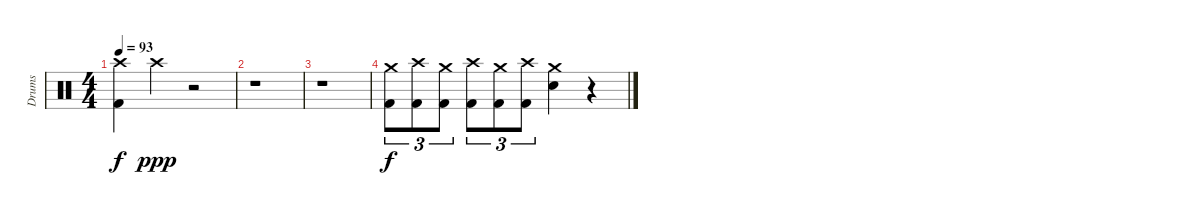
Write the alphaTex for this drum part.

\track ("Drums" "Drums") {instrument percussion}
\staff {score}
\articulation defaults
\ts (4 4)
\tempo 93
\clef neutral
\ks c
("Crash high (hit)" "Kick (hit) 2").4{dy f} "Crash high (hit)".4{dy ppp} r.2 |
r.1 |
r.1 |
("Crash medium (hit)" "Kick (hit) 2").8{tu (3 2) dy f} ("Crash high (hit)" "Kick (hit) 2").8{tu (3 2)} ("Crash medium (hit)" "Kick (hit) 2").8{tu (3 2)} ("Crash high (hit)" "Kick (hit) 2").8{tu (3 2)} ("Crash medium (hit)" "Kick (hit) 2").8{tu (3 2)} ("Crash high (hit)" "Kick (hit) 2").8{tu (3 2)} ("Crash medium (hit)" "Snare (hit) 2").4 r.4
